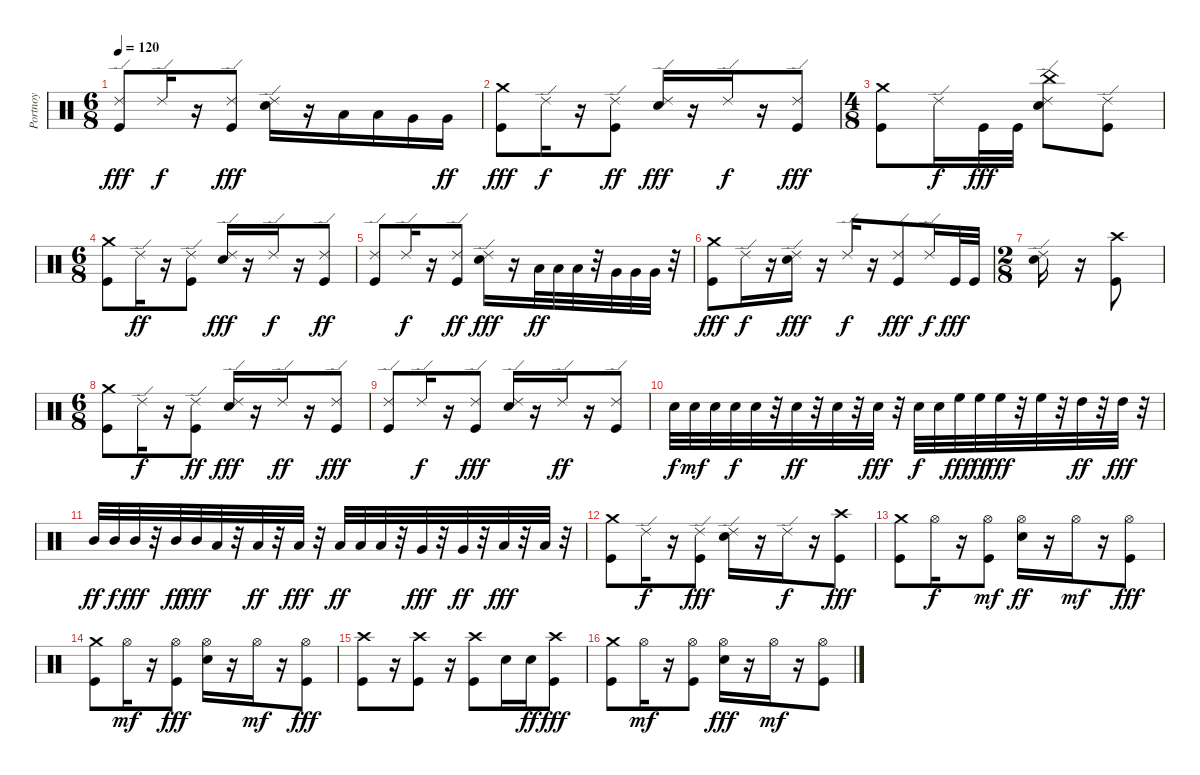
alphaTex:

\track ("Portnoy" "Portnoy") {instrument percussion}
\staff {score}
\articulation defaults
\ts (6 8)
\tempo 120
\clef neutral
\ks c
("Ride (edge) 2" "Kick (hit)").8{dy fff} "Ride (edge) 2".16{dy f} r.16 ("Ride (edge) 2" "Kick (hit)").8{dy fff} ("Snare (hit) 2" "Ride (edge) 2").16 r.16 "Low Tom (hit)".16 "Low Tom (hit)".16 "Very Low Tom (hit)".16 "Very Low Tom (hit)".16{dy ff} |
("Kick (hit)" "Crash medium (hit)").8{dy fff} "Ride (edge) 2".16{dy f} r.16 ("Kick (hit)" "Ride (edge) 2").8{dy ff} ("Ride (edge) 2" "Snare (hit) 2").16{dy fff} r.16 "Ride (edge) 2".16{dy f} r.16 ("Ride (edge) 2" "Kick (hit)").8{dy fff} |
\ts (4 8)
("Kick (hit)" "Crash medium (hit)").8 "Ride (edge) 2".16{dy f} "Kick (hit)".32{dy fff} "Kick (hit)".32 ("Ride (edge) 2" "China (hit)" "Snare (hit) 2").8 ("Ride (edge) 2" "Kick (hit)").8 |
\ts (6 8)
("Crash medium (hit)" "Kick (hit)").8 "Ride (edge) 2".16{dy ff} r.16 ("Kick (hit)" "Ride (edge) 2").8 ("Snare (hit) 2" "Ride (edge) 2").16{dy fff} r.16 "Ride (edge) 2".16{dy f} r.16 ("Kick (hit)" "Ride (edge) 2").8{dy ff} |
("Kick (hit)" "Ride (edge) 2").8 "Ride (edge) 2".16{dy f} r.16 ("Kick (hit)" "Ride (edge) 2").8{dy ff} ("Ride (edge) 2" "Snare (hit) 2").16{dy fff} r.16 "Low Tom (hit)".32{dy ff} "Low Tom (hit)".32 "Low Tom (hit)".32 r.32 "Very Low Tom (hit)".32 "Very Low Tom (hit)".32 "Very Low Tom (hit)".32 r.32 |
("Kick (hit)" "Crash medium (hit)").8{dy fff} "Ride (edge) 2".16{dy f} r.16 ("Snare (hit) 2" "Ride (edge) 2").16{dy fff} r.16 "Ride (edge) 2".16{dy f} r.16 ("Kick (hit)" "Ride (edge) 2").8{dy fff} "Ride (edge) 2".16{dy f} "Kick (hit)".32{dy fff} "Kick (hit)".32 |
\ts (2 8)
("Snare (hit) 2" "Ride (edge) 2").16 r.16 ("Kick (hit)" "Crash high (hit)").8 |
\ts (6 8)
("Kick (hit)" "Crash medium (hit)").8 "Ride (edge) 2".16{dy f} r.16 ("Kick (hit)" "Ride (edge) 2").8{dy ff} ("Ride (edge) 2" "Snare (hit) 2").16{dy fff} r.16 "Ride (edge) 2".16{dy ff} r.16 ("Ride (edge) 2" "Kick (hit)").8{dy fff} |
("Ride (edge) 2" "Kick (hit)").8 "Ride (edge) 2".16{dy f} r.16 ("Ride (edge) 2" "Kick (hit)").8{dy fff} ("Snare (hit) 2" "Ride (edge) 2").16 r.16 "Ride (edge) 2".16{dy ff} r.16 ("Kick (hit)" "Ride (edge) 2").8 |
"Snare (hit) 2".32{dy f} "Snare (hit) 2".32{dy mf} "Snare (hit) 2".32 "Snare (hit) 2".32{dy f} "Snare (hit) 2".32 r.32 "Snare (hit) 2".32{dy ff} r.32 "Snare (hit) 2".32 r.32 "Snare (hit) 2".32{dy fff} r.32 "Snare (hit) 2".32{dy f} "Snare (hit) 2".32 "High Floor Tom (hit)".32{dy fff} "High Floor Tom (hit)".32{dy ff} "High Floor Tom (hit)".32{dy fff} r.32 "High Floor Tom (hit)".32 r.32 "High Tom (hit)".32{dy ff} r.32 "High Tom (hit)".32{dy fff} r.32 |
"Mid Tom (hit)".32{dy ff} "Mid Tom (hit)".32{dy f} "Mid Tom (hit)".32{dy fff} r.32 "Mid Tom (hit)".32{dy ff} "Mid Tom (hit)".32{dy fff} "Low Tom (hit)".32 r.32 "Low Tom (hit)".32{dy ff} r.32 "Low Tom (hit)".32{dy fff} r.32 "Low Tom (hit)".32{dy ff} "Low Tom (hit)".32 "Low Tom (hit)".32 r.32 "Very Low Tom (hit)".32{dy fff} r.32 "Very Low Tom (hit)".32{dy ff} r.32 "Low Floor Tom (hit)".32{dy fff} r.32 "Low Floor Tom (hit)".32 r.32 |
("Crash medium (hit)" "Kick (hit)").8 "Ride (edge) 2".16{dy f} r.16 ("Kick (hit)" "Ride (edge) 2").8{dy fff} ("Ride (edge) 2" "Snare (hit) 2").16 r.16 "Ride (edge) 2".16{dy f} r.16 ("Crash high (hit)" "Kick (hit)").8{dy fff} |
("Crash medium (hit)" "Kick (hit)").8 "Hi-Hat (open)".16{dy f} r.16 ("Kick (hit)" "Hi-Hat (open)").8{dy mf} ("Snare (hit) 2" "Hi-Hat (open)").16{dy ff} r.16 "Hi-Hat (open)".16{dy mf} r.16 ("Kick (hit)" "Hi-Hat (open)").8{dy fff} |
("Crash medium (hit)" "Kick (hit)").8 "Hi-Hat (open)".16{dy mf} r.16 ("Hi-Hat (open)" "Kick (hit)").8{dy fff} ("Snare (hit) 2" "Hi-Hat (open)").16 r.16 "Hi-Hat (open)".16{dy mf} r.16 ("Hi-Hat (open)" "Kick (hit)").8{dy fff} |
("Crash high (hit)" "Kick (hit)").8 r.16 ("Crash high (hit)" "Kick (hit)").8 r.16 ("Kick (hit)" "Crash high (hit)").8 "Snare (hit) 2".16 "Snare (hit) 2".16{dy ff} ("Crash high (hit)" "Kick (hit)").8{dy fff} |
("Kick (hit)" "Crash medium (hit)").8 "Hi-Hat (open)".16{dy mf} r.16 ("Kick (hit)" "Hi-Hat (open)").8 ("Snare (hit) 2" "Hi-Hat (open)").16{dy fff} r.16 "Hi-Hat (open)".16{dy mf} r.16 ("Kick (hit)" "Hi-Hat (open)").8
